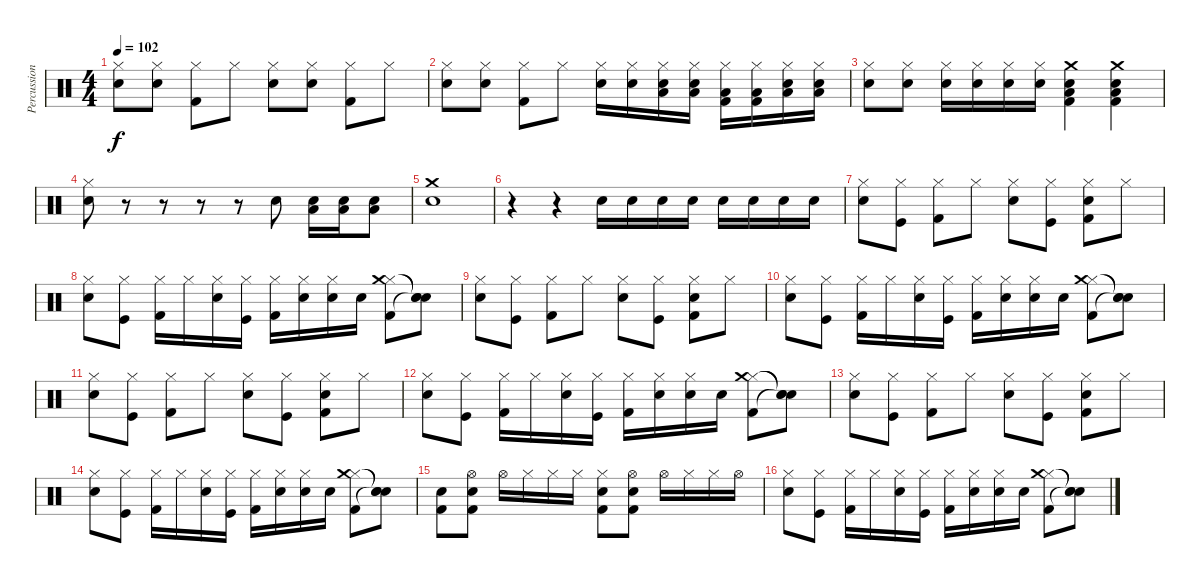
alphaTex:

\track ("Percussion" "Percussion") {instrument percussion}
\staff {score}
\articulation defaults
\ts (4 4)
\tempo 102
\clef neutral
\ks c
("Hi-Hat (closed)" "Electric Snare (hit)").8{dy f} ("Hi-Hat (closed)" "Electric Snare (hit)").8 ("Hi-Hat (closed)" "Kick (hit) 2").8 "Hi-Hat (closed)".8 ("Hi-Hat (closed)" "Electric Snare (hit)").8 ("Hi-Hat (closed)" "Electric Snare (hit)").8 ("Hi-Hat (closed)" "Kick (hit) 2").8 "Hi-Hat (closed)".8 |
("Hi-Hat (closed)" "Electric Snare (hit)").8 ("Hi-Hat (closed)" "Electric Snare (hit)").8 ("Hi-Hat (closed)" "Kick (hit) 2").8 "Hi-Hat (closed)".8 ("Hi-Hat (closed)" "Electric Snare (hit)").16 ("Hi-Hat (closed)" "Electric Snare (hit)").16 ("Hi-Hat (closed)" "Electric Snare (hit)" "Low Tom (hit)").16 ("Hi-Hat (closed)" "Electric Snare (hit)" "Low Tom (hit)").16 ("Hi-Hat (closed)" "Kick (hit) 2" "Low Tom (hit)").16 ("Hi-Hat (closed)" "Kick (hit) 2" "Low Tom (hit)").16 ("Hi-Hat (closed)" "Low Floor Tom (hit)" "Electric Snare (hit)").16 ("Hi-Hat (closed)" "Low Floor Tom (hit)" "Electric Snare (hit)").16 |
("Hi-Hat (closed)" "Electric Snare (hit)").8 ("Hi-Hat (closed)" "Electric Snare (hit)").8 ("Hi-Hat (closed)" "Electric Snare (hit)").16 ("Hi-Hat (closed)" "Electric Snare (hit)").16 ("Hi-Hat (closed)" "Electric Snare (hit)").16 ("Hi-Hat (closed)" "Electric Snare (hit)").16 ("Electric Snare (hit)" "Crash medium (hit)" "Kick (hit) 2" "Low Floor Tom (hit)").4 ("Electric Snare (hit)" "Crash medium (hit)" "Kick (hit) 2" "Low Floor Tom (hit)").4 |
("Hi-Hat (closed)" "Electric Snare (hit)").8 r.8 r.8 r.8 r.8 "Electric Snare (hit)".8 ("Electric Snare (hit)" "Low Floor Tom (hit)").16 ("Electric Snare (hit)" "Low Floor Tom (hit)").16 ("Electric Snare (hit)" "Low Floor Tom (hit)").8 |
("Crash medium (hit)" "Snare (hit) 2").1 |
r.4 r.4 "Snare (hit) 2".16 "Snare (hit) 2".16 "Snare (hit) 2".16 "Snare (hit) 2".16 "Snare (hit) 2".16 "Snare (hit) 2".16 "Snare (hit) 2".16 "Snare (hit) 2".16 |
("Hi-Hat (closed)" "Snare (hit) 2").8 ("Hi-Hat (closed)" "Kick (hit)").8 ("Hi-Hat (closed)" "Kick (hit) 2").8 "Hi-Hat (closed)".8 ("Hi-Hat (closed)" "Snare (hit) 2").8 ("Hi-Hat (closed)" "Kick (hit)").8 ("Hi-Hat (closed)" "Kick (hit) 2" "Snare (hit) 2").8 "Hi-Hat (closed)".8 |
("Hi-Hat (closed)" "Snare (hit) 2").8 ("Hi-Hat (closed)" "Kick (hit)").8 ("Hi-Hat (closed)" "Kick (hit) 2").16 "Hi-Hat (closed)".16 ("Hi-Hat (closed)" "Snare (hit) 2").16 ("Hi-Hat (closed)" "Kick (hit)").16 ("Hi-Hat (closed)" "Kick (hit) 2").16 ("Hi-Hat (closed)" "Snare (hit) 2").16 ("Hi-Hat (closed)" "Snare (hit) 2").16 "Snare (hit) 2".16 ("Hi-Hat (closed)" "Kick (hit) 2" "Crash medium (hit)").8 ("Snare (hit)"{t} "Snare (hit)"{t} "Snare (hit)"{t}).8 |
("Hi-Hat (closed)" "Snare (hit) 2").8 ("Hi-Hat (closed)" "Kick (hit)").8 ("Hi-Hat (closed)" "Kick (hit) 2").8 "Hi-Hat (closed)".8 ("Hi-Hat (closed)" "Snare (hit) 2").8 ("Hi-Hat (closed)" "Kick (hit)").8 ("Hi-Hat (closed)" "Kick (hit) 2" "Snare (hit) 2").8 "Hi-Hat (closed)".8 |
("Hi-Hat (closed)" "Snare (hit) 2").8 ("Hi-Hat (closed)" "Kick (hit)").8 ("Hi-Hat (closed)" "Kick (hit) 2").16 "Hi-Hat (closed)".16 ("Hi-Hat (closed)" "Snare (hit) 2").16 ("Hi-Hat (closed)" "Kick (hit)").16 ("Hi-Hat (closed)" "Kick (hit) 2").16 ("Hi-Hat (closed)" "Snare (hit) 2").16 ("Hi-Hat (closed)" "Snare (hit) 2").16 "Snare (hit) 2".16 ("Hi-Hat (closed)" "Kick (hit) 2" "Crash medium (hit)").8 ("Snare (hit)"{t} "Snare (hit)"{t} "Snare (hit)"{t}).8 |
("Hi-Hat (closed)" "Snare (hit) 2").8 ("Hi-Hat (closed)" "Kick (hit)").8 ("Hi-Hat (closed)" "Kick (hit) 2").8 "Hi-Hat (closed)".8 ("Hi-Hat (closed)" "Snare (hit) 2").8 ("Hi-Hat (closed)" "Kick (hit)").8 ("Hi-Hat (closed)" "Kick (hit) 2" "Snare (hit) 2").8 "Hi-Hat (closed)".8 |
("Hi-Hat (closed)" "Snare (hit) 2").8 ("Hi-Hat (closed)" "Kick (hit)").8 ("Hi-Hat (closed)" "Kick (hit) 2").16 "Hi-Hat (closed)".16 ("Hi-Hat (closed)" "Snare (hit) 2").16 ("Hi-Hat (closed)" "Kick (hit)").16 ("Hi-Hat (closed)" "Kick (hit) 2").16 ("Hi-Hat (closed)" "Snare (hit) 2").16 ("Hi-Hat (closed)" "Snare (hit) 2").16 "Snare (hit) 2".16 ("Hi-Hat (closed)" "Kick (hit) 2" "Crash medium (hit)").8 ("Snare (hit)"{t} "Snare (hit)"{t} "Snare (hit)"{t}).8 |
("Hi-Hat (closed)" "Snare (hit) 2").8 ("Hi-Hat (closed)" "Kick (hit)").8 ("Hi-Hat (closed)" "Kick (hit) 2").8 "Hi-Hat (closed)".8 ("Hi-Hat (closed)" "Snare (hit) 2").8 ("Hi-Hat (closed)" "Kick (hit)").8 ("Hi-Hat (closed)" "Kick (hit) 2" "Snare (hit) 2").8 "Hi-Hat (closed)".8 |
("Hi-Hat (closed)" "Snare (hit) 2").8 ("Hi-Hat (closed)" "Kick (hit)").8 ("Hi-Hat (closed)" "Kick (hit) 2").16 "Hi-Hat (closed)".16 ("Hi-Hat (closed)" "Snare (hit) 2").16 ("Hi-Hat (closed)" "Kick (hit)").16 ("Hi-Hat (closed)" "Kick (hit) 2").16 ("Hi-Hat (closed)" "Snare (hit) 2").16 ("Hi-Hat (closed)" "Snare (hit) 2").16 "Snare (hit) 2".16 ("Hi-Hat (closed)" "Kick (hit) 2" "Crash medium (hit)").8 ("Snare (hit)"{t} "Snare (hit)"{t} "Snare (hit)"{t}).8 |
("Kick (hit) 2" "Snare (hit) 2").8 ("Kick (hit) 2" "Hi-Hat (open)" "Snare (hit) 2").8 "Hi-Hat (open)".16 "Hi-Hat (closed)".16 "Hi-Hat (closed)".16 "Hi-Hat (closed)".16 ("Kick (hit) 2" "Hi-Hat (closed)" "Snare (hit) 2").8 ("Kick (hit) 2" "Hi-Hat (open)" "Snare (hit) 2").8 "Hi-Hat (open)".16 "Hi-Hat (closed)".16 "Hi-Hat (closed)".16 "Hi-Hat (open)".16 |
("Hi-Hat (closed)" "Snare (hit) 2").8 ("Hi-Hat (closed)" "Kick (hit)").8 ("Hi-Hat (closed)" "Kick (hit) 2").16 "Hi-Hat (closed)".16 ("Hi-Hat (closed)" "Snare (hit) 2").16 ("Hi-Hat (closed)" "Kick (hit)").16 ("Hi-Hat (closed)" "Kick (hit) 2").16 ("Hi-Hat (closed)" "Snare (hit) 2").16 ("Hi-Hat (closed)" "Snare (hit) 2").16 "Snare (hit) 2".16 ("Hi-Hat (closed)" "Kick (hit) 2" "Crash medium (hit)").8 ("Snare (hit)"{t} "Snare (hit)"{t} "Snare (hit)"{t}).8
